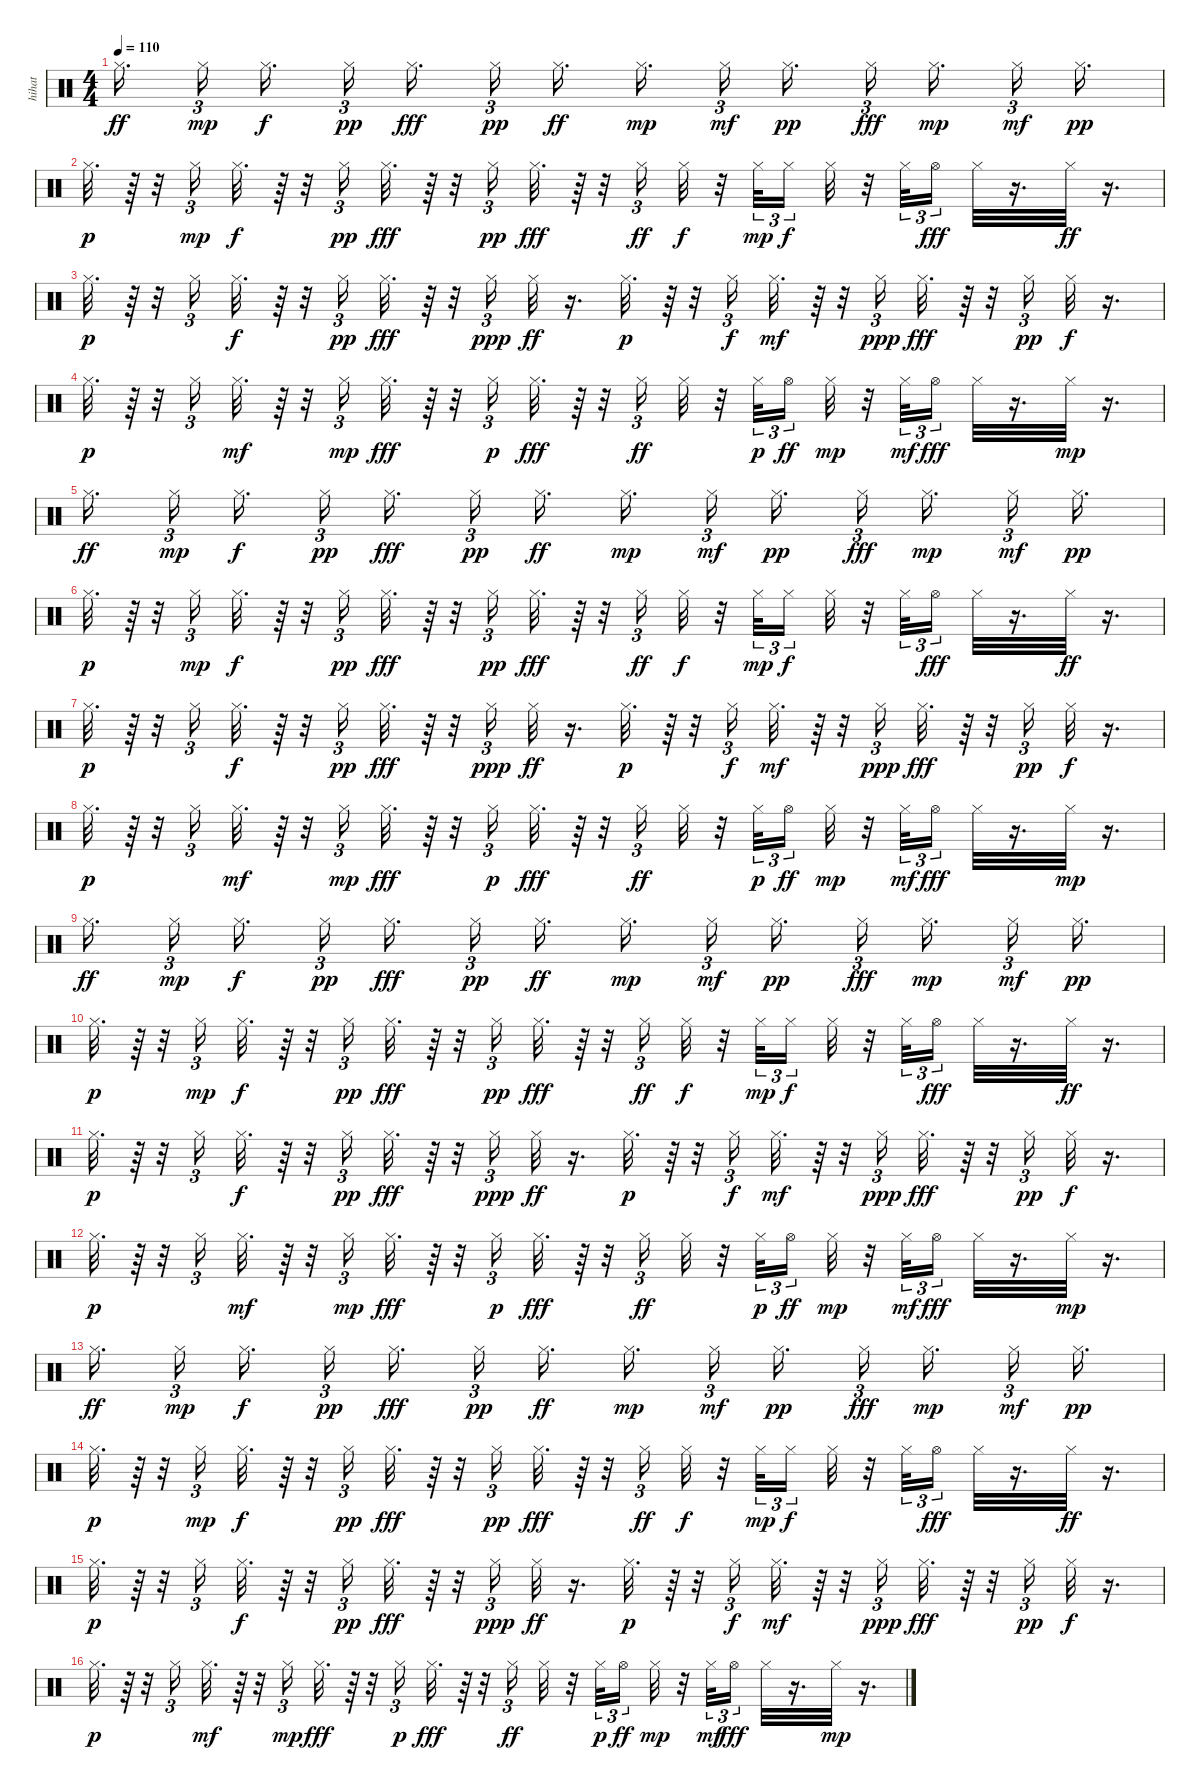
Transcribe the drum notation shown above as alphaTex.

\track ("hihat   " "hihat   ") {instrument percussion}
\staff {score}
\articulation defaults
\ts (4 4)
\tempo 110
\clef neutral
\ks c "Hi-Hat (closed)".16{d dy ff beam splitsecondary} "Hi-Hat (closed)".16{tu (3 2) dy mp beam splitsecondary} "Hi-Hat (closed)".16{d dy f} "Hi-Hat (closed)".16{tu (3 2) dy pp} "Hi-Hat (closed)".16{d dy fff beam splitsecondary} "Hi-Hat (closed)".16{tu (3 2) dy pp} "Hi-Hat (closed)".16{d dy ff} "Hi-Hat (closed)".16{d dy mp beam splitsecondary} "Hi-Hat (closed)".16{tu (3 2) dy mf beam splitsecondary} "Hi-Hat (closed)".16{d dy pp} "Hi-Hat (closed)".16{tu (3 2) dy fff} "Hi-Hat (closed)".16{d dy mp beam splitsecondary} "Hi-Hat (closed)".16{tu (3 2) dy mf} "Hi-Hat (closed)".16{d dy pp}
|
"Hi-Hat (closed)".32{d dy p} r.64 r.32 "Hi-Hat (closed)".16{tu (3 2) dy mp} "Hi-Hat (closed)".32{d dy f} r.64 r.32 "Hi-Hat (closed)".16{tu (3 2) dy pp} "Hi-Hat (closed)".32{d dy fff} r.64 r.32 "Hi-Hat (closed)".16{tu (3 2) dy pp} "Hi-Hat (closed)".32{d dy fff} r.64 r.32 "Hi-Hat (closed)".16{tu (3 2) dy ff} "Hi-Hat (closed)".32{dy f} r.32 "Hi-Hat (closed)".32{tu (3 2) dy mp} "Hi-Hat (closed)".16{tu (3 2) dy f beam splitsecondary} "Hi-Hat (closed)".32 r.32 "Hi-Hat (closed)".32{tu (3 2)} "Hi-Hat (open)".16{tu (3 2) dy fff} "Hi-Hat (closed)".32 r.16{d} "Hi-Hat (closed)".32{dy ff} r.16{d} |
"Hi-Hat (closed)".32{d dy p} r.64 r.32 "Hi-Hat (closed)".16{tu (3 2)} "Hi-Hat (closed)".32{d dy f} r.64 r.32 "Hi-Hat (closed)".16{tu (3 2) dy pp} "Hi-Hat (closed)".32{d dy fff} r.64 r.32 "Hi-Hat (closed)".16{tu (3 2) dy ppp} "Hi-Hat (closed)".32{dy ff} r.16{d} "Hi-Hat (closed)".32{d dy p} r.64 r.32 "Hi-Hat (closed)".16{tu (3 2) dy f} "Hi-Hat (closed)".32{d dy mf} r.64 r.32 "Hi-Hat (closed)".16{tu (3 2) dy ppp} "Hi-Hat (closed)".32{d dy fff} r.64 r.32 "Hi-Hat (closed)".16{tu (3 2) dy pp} "Hi-Hat (closed)".32{dy f} r.16{d} |
"Hi-Hat (closed)".32{d dy p} r.64 r.32 "Hi-Hat (closed)".16{tu (3 2)} "Hi-Hat (closed)".32{d dy mf} r.64 r.32 "Hi-Hat (closed)".16{tu (3 2) dy mp} "Hi-Hat (closed)".32{d dy fff} r.64 r.32 "Hi-Hat (closed)".16{tu (3 2) dy p} "Hi-Hat (closed)".32{d dy fff} r.64 r.32 "Hi-Hat (closed)".16{tu (3 2) dy ff} "Hi-Hat (closed)".32 r.32 "Hi-Hat (closed)".32{tu (3 2) dy p} "Hi-Hat (open)".16{tu (3 2) dy ff beam splitsecondary} "Hi-Hat (closed)".32{dy mp} r.32 "Hi-Hat (closed)".32{tu (3 2) dy mf} "Hi-Hat (open)".16{tu (3 2) dy fff} "Hi-Hat (closed)".32 r.16{d} "Hi-Hat (closed)".32{dy mp} r.16{d} |
"Hi-Hat (closed)".16{d dy ff beam splitsecondary} "Hi-Hat (closed)".16{tu (3 2) dy mp beam splitsecondary} "Hi-Hat (closed)".16{d dy f} "Hi-Hat (closed)".16{tu (3 2) dy pp} "Hi-Hat (closed)".16{d dy fff beam splitsecondary} "Hi-Hat (closed)".16{tu (3 2) dy pp} "Hi-Hat (closed)".16{d dy ff} "Hi-Hat (closed)".16{d dy mp beam splitsecondary} "Hi-Hat (closed)".16{tu (3 2) dy mf beam splitsecondary} "Hi-Hat (closed)".16{d dy pp} "Hi-Hat (closed)".16{tu (3 2) dy fff} "Hi-Hat (closed)".16{d dy mp beam splitsecondary} "Hi-Hat (closed)".16{tu (3 2) dy mf} "Hi-Hat (closed)".16{d dy pp} |
"Hi-Hat (closed)".32{d dy p} r.64 r.32 "Hi-Hat (closed)".16{tu (3 2) dy mp} "Hi-Hat (closed)".32{d dy f} r.64 r.32 "Hi-Hat (closed)".16{tu (3 2) dy pp} "Hi-Hat (closed)".32{d dy fff} r.64 r.32 "Hi-Hat (closed)".16{tu (3 2) dy pp} "Hi-Hat (closed)".32{d dy fff} r.64 r.32 "Hi-Hat (closed)".16{tu (3 2) dy ff} "Hi-Hat (closed)".32{dy f} r.32 "Hi-Hat (closed)".32{tu (3 2) dy mp} "Hi-Hat (closed)".16{tu (3 2) dy f beam splitsecondary} "Hi-Hat (closed)".32 r.32 "Hi-Hat (closed)".32{tu (3 2)} "Hi-Hat (open)".16{tu (3 2) dy fff} "Hi-Hat (closed)".32 r.16{d} "Hi-Hat (closed)".32{dy ff} r.16{d} |
"Hi-Hat (closed)".32{d dy p} r.64 r.32 "Hi-Hat (closed)".16{tu (3 2)} "Hi-Hat (closed)".32{d dy f} r.64 r.32 "Hi-Hat (closed)".16{tu (3 2) dy pp} "Hi-Hat (closed)".32{d dy fff} r.64 r.32 "Hi-Hat (closed)".16{tu (3 2) dy ppp} "Hi-Hat (closed)".32{dy ff} r.16{d} "Hi-Hat (closed)".32{d dy p} r.64 r.32 "Hi-Hat (closed)".16{tu (3 2) dy f} "Hi-Hat (closed)".32{d dy mf} r.64 r.32 "Hi-Hat (closed)".16{tu (3 2) dy ppp} "Hi-Hat (closed)".32{d dy fff} r.64 r.32 "Hi-Hat (closed)".16{tu (3 2) dy pp} "Hi-Hat (closed)".32{dy f} r.16{d} |
"Hi-Hat (closed)".32{d dy p} r.64 r.32 "Hi-Hat (closed)".16{tu (3 2)} "Hi-Hat (closed)".32{d dy mf} r.64 r.32 "Hi-Hat (closed)".16{tu (3 2) dy mp} "Hi-Hat (closed)".32{d dy fff} r.64 r.32 "Hi-Hat (closed)".16{tu (3 2) dy p} "Hi-Hat (closed)".32{d dy fff} r.64 r.32 "Hi-Hat (closed)".16{tu (3 2) dy ff} "Hi-Hat (closed)".32 r.32 "Hi-Hat (closed)".32{tu (3 2) dy p} "Hi-Hat (open)".16{tu (3 2) dy ff beam splitsecondary} "Hi-Hat (closed)".32{dy mp} r.32 "Hi-Hat (closed)".32{tu (3 2) dy mf} "Hi-Hat (open)".16{tu (3 2) dy fff} "Hi-Hat (closed)".32 r.16{d} "Hi-Hat (closed)".32{dy mp} r.16{d} |
"Hi-Hat (closed)".16{d dy ff beam splitsecondary} "Hi-Hat (closed)".16{tu (3 2) dy mp beam splitsecondary} "Hi-Hat (closed)".16{d dy f} "Hi-Hat (closed)".16{tu (3 2) dy pp} "Hi-Hat (closed)".16{d dy fff beam splitsecondary} "Hi-Hat (closed)".16{tu (3 2) dy pp} "Hi-Hat (closed)".16{d dy ff} "Hi-Hat (closed)".16{d dy mp beam splitsecondary} "Hi-Hat (closed)".16{tu (3 2) dy mf beam splitsecondary} "Hi-Hat (closed)".16{d dy pp} "Hi-Hat (closed)".16{tu (3 2) dy fff} "Hi-Hat (closed)".16{d dy mp beam splitsecondary} "Hi-Hat (closed)".16{tu (3 2) dy mf} "Hi-Hat (closed)".16{d dy pp} |
"Hi-Hat (closed)".32{d dy p} r.64 r.32 "Hi-Hat (closed)".16{tu (3 2) dy mp} "Hi-Hat (closed)".32{d dy f} r.64 r.32 "Hi-Hat (closed)".16{tu (3 2) dy pp} "Hi-Hat (closed)".32{d dy fff} r.64 r.32 "Hi-Hat (closed)".16{tu (3 2) dy pp} "Hi-Hat (closed)".32{d dy fff} r.64 r.32 "Hi-Hat (closed)".16{tu (3 2) dy ff} "Hi-Hat (closed)".32{dy f} r.32 "Hi-Hat (closed)".32{tu (3 2) dy mp} "Hi-Hat (closed)".16{tu (3 2) dy f beam splitsecondary} "Hi-Hat (closed)".32 r.32 "Hi-Hat (closed)".32{tu (3 2)} "Hi-Hat (open)".16{tu (3 2) dy fff} "Hi-Hat (closed)".32 r.16{d} "Hi-Hat (closed)".32{dy ff} r.16{d} |
"Hi-Hat (closed)".32{d dy p} r.64 r.32 "Hi-Hat (closed)".16{tu (3 2)} "Hi-Hat (closed)".32{d dy f} r.64 r.32 "Hi-Hat (closed)".16{tu (3 2) dy pp} "Hi-Hat (closed)".32{d dy fff} r.64 r.32 "Hi-Hat (closed)".16{tu (3 2) dy ppp} "Hi-Hat (closed)".32{dy ff} r.16{d} "Hi-Hat (closed)".32{d dy p} r.64 r.32 "Hi-Hat (closed)".16{tu (3 2) dy f} "Hi-Hat (closed)".32{d dy mf} r.64 r.32 "Hi-Hat (closed)".16{tu (3 2) dy ppp} "Hi-Hat (closed)".32{d dy fff} r.64 r.32 "Hi-Hat (closed)".16{tu (3 2) dy pp} "Hi-Hat (closed)".32{dy f} r.16{d} |
"Hi-Hat (closed)".32{d dy p} r.64 r.32 "Hi-Hat (closed)".16{tu (3 2)} "Hi-Hat (closed)".32{d dy mf} r.64 r.32 "Hi-Hat (closed)".16{tu (3 2) dy mp} "Hi-Hat (closed)".32{d dy fff} r.64 r.32 "Hi-Hat (closed)".16{tu (3 2) dy p} "Hi-Hat (closed)".32{d dy fff} r.64 r.32 "Hi-Hat (closed)".16{tu (3 2) dy ff} "Hi-Hat (closed)".32 r.32 "Hi-Hat (closed)".32{tu (3 2) dy p} "Hi-Hat (open)".16{tu (3 2) dy ff beam splitsecondary} "Hi-Hat (closed)".32{dy mp} r.32 "Hi-Hat (closed)".32{tu (3 2) dy mf} "Hi-Hat (open)".16{tu (3 2) dy fff} "Hi-Hat (closed)".32 r.16{d} "Hi-Hat (closed)".32{dy mp} r.16{d} |
"Hi-Hat (closed)".16{d dy ff beam splitsecondary} "Hi-Hat (closed)".16{tu (3 2) dy mp beam splitsecondary} "Hi-Hat (closed)".16{d dy f} "Hi-Hat (closed)".16{tu (3 2) dy pp} "Hi-Hat (closed)".16{d dy fff beam splitsecondary} "Hi-Hat (closed)".16{tu (3 2) dy pp} "Hi-Hat (closed)".16{d dy ff} "Hi-Hat (closed)".16{d dy mp beam splitsecondary} "Hi-Hat (closed)".16{tu (3 2) dy mf beam splitsecondary} "Hi-Hat (closed)".16{d dy pp} "Hi-Hat (closed)".16{tu (3 2) dy fff} "Hi-Hat (closed)".16{d dy mp beam splitsecondary} "Hi-Hat (closed)".16{tu (3 2) dy mf} "Hi-Hat (closed)".16{d dy pp} |
"Hi-Hat (closed)".32{d dy p} r.64 r.32 "Hi-Hat (closed)".16{tu (3 2) dy mp} "Hi-Hat (closed)".32{d dy f} r.64 r.32 "Hi-Hat (closed)".16{tu (3 2) dy pp} "Hi-Hat (closed)".32{d dy fff} r.64 r.32 "Hi-Hat (closed)".16{tu (3 2) dy pp} "Hi-Hat (closed)".32{d dy fff} r.64 r.32 "Hi-Hat (closed)".16{tu (3 2) dy ff} "Hi-Hat (closed)".32{dy f} r.32 "Hi-Hat (closed)".32{tu (3 2) dy mp} "Hi-Hat (closed)".16{tu (3 2) dy f beam splitsecondary} "Hi-Hat (closed)".32 r.32 "Hi-Hat (closed)".32{tu (3 2)} "Hi-Hat (open)".16{tu (3 2) dy fff} "Hi-Hat (closed)".32 r.16{d} "Hi-Hat (closed)".32{dy ff} r.16{d} |
"Hi-Hat (closed)".32{d dy p} r.64 r.32 "Hi-Hat (closed)".16{tu (3 2)} "Hi-Hat (closed)".32{d dy f} r.64 r.32 "Hi-Hat (closed)".16{tu (3 2) dy pp} "Hi-Hat (closed)".32{d dy fff} r.64 r.32 "Hi-Hat (closed)".16{tu (3 2) dy ppp} "Hi-Hat (closed)".32{dy ff} r.16{d} "Hi-Hat (closed)".32{d dy p} r.64 r.32 "Hi-Hat (closed)".16{tu (3 2) dy f} "Hi-Hat (closed)".32{d dy mf} r.64 r.32 "Hi-Hat (closed)".16{tu (3 2) dy ppp} "Hi-Hat (closed)".32{d dy fff} r.64 r.32 "Hi-Hat (closed)".16{tu (3 2) dy pp} "Hi-Hat (closed)".32{dy f} r.16{d} |
"Hi-Hat (closed)".32{d dy p} r.64 r.32 "Hi-Hat (closed)".16{tu (3 2)} "Hi-Hat (closed)".32{d dy mf} r.64 r.32 "Hi-Hat (closed)".16{tu (3 2) dy mp} "Hi-Hat (closed)".32{d dy fff} r.64 r.32 "Hi-Hat (closed)".16{tu (3 2) dy p} "Hi-Hat (closed)".32{d dy fff} r.64 r.32 "Hi-Hat (closed)".16{tu (3 2) dy ff} "Hi-Hat (closed)".32 r.32 "Hi-Hat (closed)".32{tu (3 2) dy p} "Hi-Hat (open)".16{tu (3 2) dy ff beam splitsecondary} "Hi-Hat (closed)".32{dy mp} r.32 "Hi-Hat (closed)".32{tu (3 2) dy mf} "Hi-Hat (open)".16{tu (3 2) dy fff} "Hi-Hat (closed)".32 r.16{d} "Hi-Hat (closed)".32{dy mp} r.16{d}
